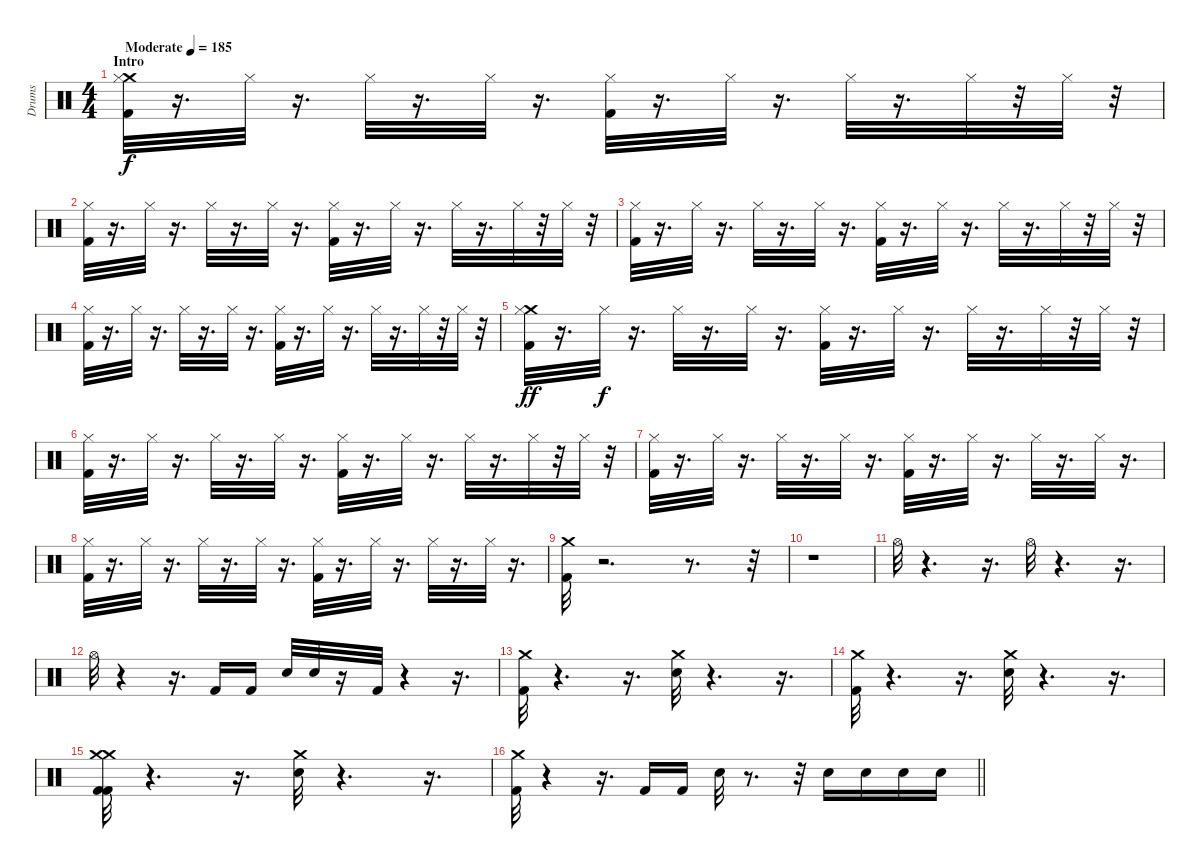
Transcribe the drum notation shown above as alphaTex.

\track ("Drums" "Drums") {instrument percussion}
\staff {score}
\articulation defaults
\ts (4 4)
\section ("" "Intro")
\tempo (185 "Moderate")
\clef neutral
\ks c
("Kick (hit) 2" "Crash medium (hit)" "Hi-Hat (closed)").32{dy f} r.16{d} "Hi-Hat (closed)".32 r.16{d} "Hi-Hat (closed)".32 r.16{d} "Hi-Hat (closed)".32 r.16{d} ("Kick (hit) 2" "Hi-Hat (closed)").32 r.16{d} "Hi-Hat (closed)".32 r.16{d} "Hi-Hat (closed)".32 r.16{d} "Hi-Hat (closed)".32 r.32 "Hi-Hat (closed)".32 r.32 |
("Kick (hit) 2" "Hi-Hat (closed)").32 r.16{d} "Hi-Hat (closed)".32 r.16{d} "Hi-Hat (closed)".32 r.16{d} "Hi-Hat (closed)".32 r.16{d} ("Kick (hit) 2" "Hi-Hat (closed)").32 r.16{d} "Hi-Hat (closed)".32 r.16{d} "Hi-Hat (closed)".32 r.16{d} "Hi-Hat (closed)".32 r.32 "Hi-Hat (closed)".32 r.32 |
("Hi-Hat (closed)" "Kick (hit) 2").32 r.16{d} "Hi-Hat (closed)".32 r.16{d} "Hi-Hat (closed)".32 r.16{d} "Hi-Hat (closed)".32 r.16{d} ("Hi-Hat (closed)" "Kick (hit) 2").32 r.16{d} "Hi-Hat (closed)".32 r.16{d} "Hi-Hat (closed)".32 r.16{d} "Hi-Hat (closed)".32 r.32 "Hi-Hat (closed)".32 r.32 |
("Kick (hit) 2" "Hi-Hat (closed)").32 r.16{d} "Hi-Hat (closed)".32 r.16{d} "Hi-Hat (closed)".32 r.16{d} "Hi-Hat (closed)".32 r.16{d} ("Hi-Hat (closed)" "Kick (hit) 2").32 r.16{d} "Hi-Hat (closed)".32 r.16{d} "Hi-Hat (closed)".32 r.16{d} "Hi-Hat (closed)".32 r.32 "Hi-Hat (closed)".32 r.32 |
("Kick (hit) 2" "Crash medium (hit)" "Hi-Hat (closed)").32{dy ff} r.16{d} "Hi-Hat (closed)".32{dy f} r.16{d} "Hi-Hat (closed)".32 r.16{d} "Hi-Hat (closed)".32 r.16{d} ("Hi-Hat (closed)" "Kick (hit) 2").32 r.16{d} "Hi-Hat (closed)".32 r.16{d} "Hi-Hat (closed)".32 r.16{d} "Hi-Hat (closed)".32 r.32 "Hi-Hat (closed)".32 r.32 |
("Kick (hit) 2" "Hi-Hat (closed)").32 r.16{d} "Hi-Hat (closed)".32 r.16{d} "Hi-Hat (closed)".32 r.16{d} "Hi-Hat (closed)".32 r.16{d} ("Hi-Hat (closed)" "Kick (hit) 2").32 r.16{d} "Hi-Hat (closed)".32 r.16{d} "Hi-Hat (closed)".32 r.16{d} "Hi-Hat (closed)".32 r.32 "Hi-Hat (closed)".32 r.32 |
("Kick (hit) 2" "Hi-Hat (closed)").32 r.16{d} "Hi-Hat (closed)".32 r.16{d} "Hi-Hat (closed)".32 r.16{d} "Hi-Hat (closed)".32 r.16{d} ("Kick (hit) 2" "Hi-Hat (closed)").32 r.16{d} "Hi-Hat (closed)".32 r.16{d} "Hi-Hat (closed)".32 r.16{d} "Hi-Hat (closed)".32 r.16{d} |
("Kick (hit) 2" "Hi-Hat (closed)").32 r.16{d} "Hi-Hat (closed)".32 r.16{d} "Hi-Hat (closed)".32 r.16{d} "Hi-Hat (closed)".32 r.16{d} ("Kick (hit) 2" "Hi-Hat (closed)").32 r.16{d} "Hi-Hat (closed)".32 r.16{d} "Hi-Hat (closed)".32 r.16{d} "Hi-Hat (closed)".32 r.16{d} |
("Kick (hit) 2" "Crash medium (hit)").32 r.2{d} r.8{d} r.32 |
r.1 |
"Hi-Hat (open)".32 r.4{d} r.16{d} "Hi-Hat (open)".32 r.4{d} r.16{d} |
"Hi-Hat (open)".32 r.4 r.16{d} "Kick (hit) 2".16 "Kick (hit) 2".16 "Electric Snare (hit)".32 "Electric Snare (hit)".32 r.16 "Kick (hit) 2".32 r.4 r.16{d} |
("Kick (hit) 2" "Crash medium (hit)").32 r.4{d} r.16{d} ("Crash medium (hit)" "Electric Snare (hit)").32 r.4{d} r.16{d} |
("Kick (hit) 2" "Crash medium (hit)").32 r.4{d} r.16{d} ("Electric Snare (hit)" "Crash medium (hit)").32 r.4{d} r.16{d} |
("Crash medium (hit)" "Kick (hit) 2" "Kick (hit) 2" "Crash medium (hit)").32 r.4{d} r.16{d} ("Electric Snare (hit)" "Crash medium (hit)").32 r.4{d} r.16{d} |
\barLineRight lightlight
("Crash medium (hit)" "Kick (hit) 2").32 r.4 r.16{d} "Kick (hit) 2".16 "Kick (hit) 2".16 "Electric Snare (hit)".32 r.8{d} r.32 "Electric Snare (hit)".16 "Electric Snare (hit)".16 "Electric Snare (hit)".16 "Electric Snare (hit)".16
